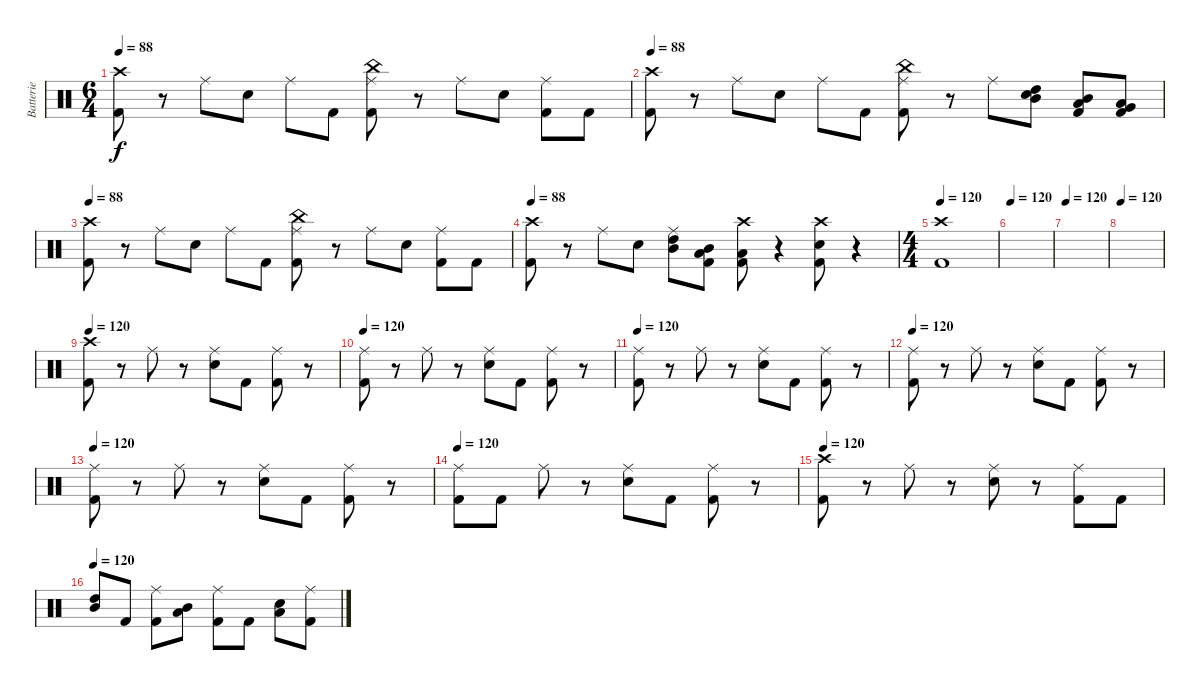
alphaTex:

\track ("Batterie" "Batterie") {instrument percussion}
\staff {score}
\articulation defaults
\ts (6 4)
\tempo 88
\clef neutral
\ks c
("Crash high (hit)" "Kick (hit) 2").8{dy f} r.8 "Ride (middle)".8 "Electric Snare (hit)".8 "Ride (middle)".8 "Kick (hit) 2".8 ("China (hit)" "Ride (middle)" "Kick (hit) 2").8 r.8 "Ride (middle)".8 "Electric Snare (hit)".8 ("Ride (middle)" "Kick (hit) 2").8 "Kick (hit) 2".8 |
\tempo 88
("Crash high (hit)" "Kick (hit) 2").8 r.8 "Ride (middle)".8 "Electric Snare (hit)".8 "Ride (middle)".8 "Kick (hit) 2".8 ("China (hit)" "Ride (middle)" "Kick (hit) 2").8 r.8 "Ride (middle)".8 ("High Tom (hit)" "Mid Tom (hit)" "Electric Snare (hit)").8 ("Mid Tom (hit)" "Low Tom (hit)" "Kick (hit) 2").8 ("Low Tom (hit)" "Very Low Tom (hit)" "Kick (hit) 2").8 |
\tempo 88
("Crash high (hit)" "Kick (hit) 2").8 r.8 "Ride (middle)".8 "Electric Snare (hit)".8 "Ride (middle)".8 "Kick (hit) 2".8 ("China (hit)" "Ride (middle)" "Kick (hit) 2").8 r.8 "Ride (middle)".8 "Electric Snare (hit)".8 ("Ride (middle)" "Kick (hit) 2").8 "Kick (hit) 2".8 |
\tempo 88
("Crash high (hit)" "Kick (hit) 2").8 r.8 "Ride (middle)".8 "Electric Snare (hit)".8 ("High Tom (hit)" "Mid Tom (hit)" "Ride (middle)").8 ("Mid Tom (hit)" "Low Tom (hit)" "Kick (hit) 2").8 ("Crash high (hit)" "Low Tom (hit)" "Kick (hit) 2").8 r.4 ("Crash high (hit)" "Electric Snare (hit)" "Kick (hit) 2").8 r.4 |
\ts (4 4)
\tempo 120
("Crash high (hit)" "Kick (hit) 2").1 |
\tempo 120
|
\tempo 120
|
\tempo 120
|
\tempo 120
("Crash high (hit)" "Kick (hit) 2").8 r.8 "Ride (middle)".8 r.8 ("Ride (middle)" "Electric Snare (hit)").8 "Kick (hit) 2".8 ("Ride (middle)" "Kick (hit) 2").8 r.8 |
\tempo 120
("Ride (middle)" "Kick (hit) 2").8 r.8 "Ride (middle)".8 r.8 ("Ride (middle)" "Electric Snare (hit)").8 "Kick (hit) 2".8 ("Ride (middle)" "Kick (hit) 2").8 r.8 |
\tempo 120
("Ride (middle)" "Kick (hit) 2").8 r.8 "Ride (middle)".8 r.8 ("Ride (middle)" "Electric Snare (hit)").8 "Kick (hit) 2".8 ("Ride (middle)" "Kick (hit) 2").8 r.8 |
\tempo 120
("Ride (middle)" "Kick (hit) 2").8 r.8 "Ride (middle)".8 r.8 ("Ride (middle)" "Electric Snare (hit)").8 "Kick (hit) 2".8 ("Ride (middle)" "Kick (hit) 2").8 r.8 |
\tempo 120
("Ride (middle)" "Kick (hit) 2").8 r.8 "Ride (middle)".8 r.8 ("Ride (middle)" "Electric Snare (hit)").8 "Kick (hit) 2".8 ("Ride (middle)" "Kick (hit) 2").8 r.8 |
\tempo 120
("Ride (middle)" "Kick (hit) 2").8 "Kick (hit) 2".8 "Ride (middle)".8 r.8 ("Ride (middle)" "Electric Snare (hit)").8 "Kick (hit) 2".8 ("Ride (middle)" "Kick (hit) 2").8 r.8 |
\tempo 120
("Crash high (hit)" "Kick (hit) 2").8 r.8 "Ride (middle)".8 r.8 ("Ride (middle)" "Electric Snare (hit)").8 r.8 ("Ride (middle)" "Kick (hit) 2").8 "Kick (hit) 2".8 |
\tempo 120
("Mid Tom (hit)" "High Tom (hit)").8 "Kick (hit) 2".8 ("Ride (middle)" "Kick (hit) 2").8 ("Low Tom (hit)" "Mid Tom (hit)").8 ("Ride (middle)" "Kick (hit) 2").8 "Kick (hit) 2".8 ("Low Tom (hit)" "Electric Snare (hit)").8 ("Ride (middle)" "Kick (hit) 2").8
